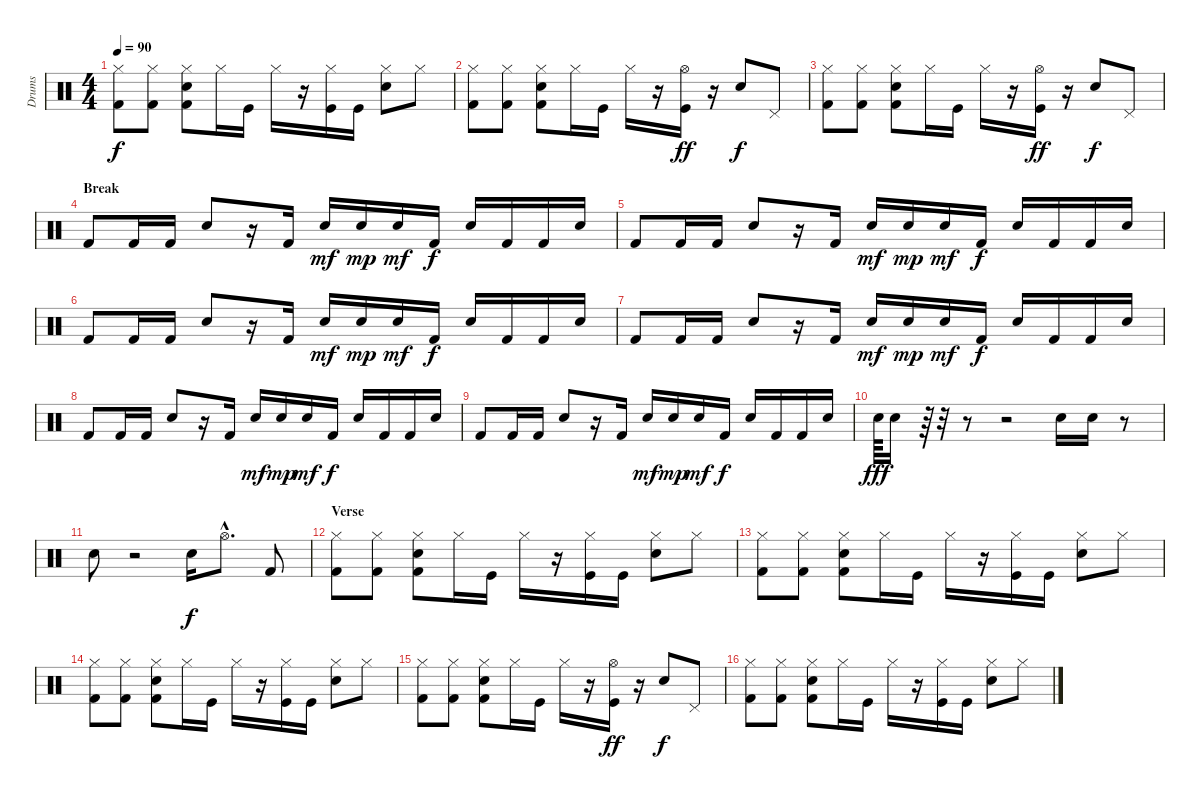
\track ("Drums" "Drums") {instrument percussion}
\staff {score}
\articulation defaults
\ts (4 4)
\tempo 90
\clef neutral
\ks c
("Hi-Hat (closed)" "Kick (hit) 2").8{dy f} ("Hi-Hat (closed)" "Kick (hit) 2").8 ("Hi-Hat (closed)" "Electric Snare (hit)" "Kick (hit) 2").8 "Hi-Hat (closed)".16 "Kick (hit)".16 "Hi-Hat (closed)".16 r.16 ("Hi-Hat (closed)" "Kick (hit)").16 "Kick (hit)".16 ("Hi-Hat (closed)" "Electric Snare (hit)").8 "Hi-Hat (closed)".8 |
("Hi-Hat (closed)" "Kick (hit) 2").8 ("Hi-Hat (closed)" "Kick (hit) 2").8 ("Hi-Hat (closed)" "Electric Snare (hit)" "Kick (hit) 2").8 "Hi-Hat (closed)".16 "Kick (hit)".16 "Hi-Hat (closed)".16 r.16 ("Hi-Hat (open)" "Kick (hit)").16{dy ff} r.16 "Electric Snare (hit)".8{dy f} "Pedal Hi-Hat (hit)".8 |
("Hi-Hat (closed)" "Kick (hit) 2").8 ("Hi-Hat (closed)" "Kick (hit) 2").8 ("Hi-Hat (closed)" "Electric Snare (hit)" "Kick (hit) 2").8 "Hi-Hat (closed)".16 "Kick (hit)".16 "Hi-Hat (closed)".16 r.16 ("Hi-Hat (open)" "Kick (hit)").16{dy ff} r.16 "Electric Snare (hit)".8{dy f} "Pedal Hi-Hat (hit)".8 |
\section ("" "Break")
"Kick (hit) 2".8 "Kick (hit) 2".16 "Kick (hit) 2".16 "Electric Snare (hit)".8 r.16 "Kick (hit) 2".16 "Electric Snare (hit)".16{dy mf} "Electric Snare (hit)".16{dy mp} "Electric Snare (hit)".16{dy mf} "Kick (hit) 2".16{dy f} "Electric Snare (hit)".16 "Kick (hit) 2".16 "Kick (hit) 2".16 "Electric Snare (hit)".16 |
"Kick (hit) 2".8 "Kick (hit) 2".16 "Kick (hit) 2".16 "Electric Snare (hit)".8 r.16 "Kick (hit) 2".16 "Electric Snare (hit)".16{dy mf} "Electric Snare (hit)".16{dy mp} "Electric Snare (hit)".16{dy mf} "Kick (hit) 2".16{dy f} "Electric Snare (hit)".16 "Kick (hit) 2".16 "Kick (hit) 2".16 "Electric Snare (hit)".16 |
"Kick (hit) 2".8 "Kick (hit) 2".16 "Kick (hit) 2".16 "Electric Snare (hit)".8 r.16 "Kick (hit) 2".16 "Electric Snare (hit)".16{dy mf} "Electric Snare (hit)".16{dy mp} "Electric Snare (hit)".16{dy mf} "Kick (hit) 2".16{dy f} "Electric Snare (hit)".16 "Kick (hit) 2".16 "Kick (hit) 2".16 "Electric Snare (hit)".16 |
"Kick (hit) 2".8 "Kick (hit) 2".16 "Kick (hit) 2".16 "Electric Snare (hit)".8 r.16 "Kick (hit) 2".16 "Electric Snare (hit)".16{dy mf} "Electric Snare (hit)".16{dy mp} "Electric Snare (hit)".16{dy mf} "Kick (hit) 2".16{dy f} "Electric Snare (hit)".16 "Kick (hit) 2".16 "Kick (hit) 2".16 "Electric Snare (hit)".16 |
"Kick (hit) 2".8 "Kick (hit) 2".16 "Kick (hit) 2".16 "Electric Snare (hit)".8 r.16 "Kick (hit) 2".16 "Electric Snare (hit)".16{dy mf} "Electric Snare (hit)".16{dy mp} "Electric Snare (hit)".16{dy mf} "Kick (hit) 2".16{dy f} "Electric Snare (hit)".16 "Kick (hit) 2".16 "Kick (hit) 2".16 "Electric Snare (hit)".16 |
"Kick (hit) 2".8 "Kick (hit) 2".16 "Kick (hit) 2".16 "Electric Snare (hit)".8 r.16 "Kick (hit) 2".16 "Electric Snare (hit)".16{dy mf} "Electric Snare (hit)".16{dy mp} "Electric Snare (hit)".16{dy mf} "Kick (hit) 2".16{dy f} "Electric Snare (hit)".16 "Kick (hit) 2".16 "Kick (hit) 2".16 "Electric Snare (hit)".16 |
"Electric Snare (hit)".64{dy fff} "Electric Snare (hit)".16 r.64 r.32 r.8 r.2 "Electric Snare (hit)".16 "Electric Snare (hit)".16 r.8 |
"Electric Snare (hit)".8 r.2 "Electric Snare (hit)".16{dy f} "Hi-Hat (open)"{hac}.8{d} "Kick (hit) 2".8 |
\section ("" "Verse")
("Hi-Hat (closed)" "Kick (hit) 2").8 ("Hi-Hat (closed)" "Kick (hit) 2").8 ("Hi-Hat (closed)" "Electric Snare (hit)" "Kick (hit) 2").8 "Hi-Hat (closed)".16 "Kick (hit)".16 "Hi-Hat (closed)".16 r.16 ("Hi-Hat (closed)" "Kick (hit)").16 "Kick (hit)".16 ("Hi-Hat (closed)" "Electric Snare (hit)").8 "Hi-Hat (closed)".8 |
("Hi-Hat (closed)" "Kick (hit) 2").8 ("Hi-Hat (closed)" "Kick (hit) 2").8 ("Hi-Hat (closed)" "Electric Snare (hit)" "Kick (hit) 2").8 "Hi-Hat (closed)".16 "Kick (hit)".16 "Hi-Hat (closed)".16 r.16 ("Hi-Hat (closed)" "Kick (hit)").16 "Kick (hit)".16 ("Hi-Hat (closed)" "Electric Snare (hit)").8 "Hi-Hat (closed)".8 |
("Hi-Hat (closed)" "Kick (hit) 2").8 ("Hi-Hat (closed)" "Kick (hit) 2").8 ("Hi-Hat (closed)" "Electric Snare (hit)" "Kick (hit) 2").8 "Hi-Hat (closed)".16 "Kick (hit)".16 "Hi-Hat (closed)".16 r.16 ("Hi-Hat (closed)" "Kick (hit)").16 "Kick (hit)".16 ("Hi-Hat (closed)" "Electric Snare (hit)").8 "Hi-Hat (closed)".8 |
("Hi-Hat (closed)" "Kick (hit) 2").8 ("Hi-Hat (closed)" "Kick (hit) 2").8 ("Hi-Hat (closed)" "Electric Snare (hit)" "Kick (hit) 2").8 "Hi-Hat (closed)".16 "Kick (hit)".16 "Hi-Hat (closed)".16 r.16 ("Hi-Hat (open)" "Kick (hit)").16{dy ff} r.16 "Electric Snare (hit)".8{dy f} "Pedal Hi-Hat (hit)".8 |
("Hi-Hat (closed)" "Kick (hit) 2").8 ("Hi-Hat (closed)" "Kick (hit) 2").8 ("Hi-Hat (closed)" "Electric Snare (hit)" "Kick (hit) 2").8 "Hi-Hat (closed)".16 "Kick (hit)".16 "Hi-Hat (closed)".16 r.16 ("Hi-Hat (closed)" "Kick (hit)").16 "Kick (hit)".16 ("Hi-Hat (closed)" "Electric Snare (hit)").8 "Hi-Hat (closed)".8
